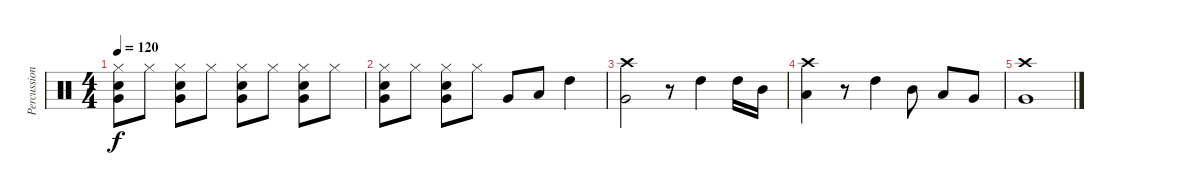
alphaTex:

\track ("Percussion" "Percussion") {instrument percussion}
\staff {score}
\articulation defaults
\ts (4 4)
\tempo 120
\clef neutral
\ks c
("Hi-Hat (closed)" "Snare (hit) 2" "Very Low Tom (hit)").8{dy f} "Hi-Hat (closed)".8 ("Hi-Hat (closed)" "Snare (hit) 2" "Very Low Tom (hit)").8 "Hi-Hat (closed)".8 ("Hi-Hat (closed)" "Snare (hit) 2" "Very Low Tom (hit)").8 "Hi-Hat (closed)".8 ("Hi-Hat (closed)" "Snare (hit) 2" "Very Low Tom (hit)").8 "Hi-Hat (closed)".8 |
("Hi-Hat (closed)" "Snare (hit) 2" "Very Low Tom (hit)").8 "Hi-Hat (closed)".8 ("Hi-Hat (closed)" "Snare (hit) 2" "Very Low Tom (hit)").8 "Hi-Hat (closed)".8 "Very Low Tom (hit)".8 "Low Tom (hit)".8 "High Tom (hit)".4 |
("Crash high (hit)" "Very Low Tom (hit)").2 r.8 "High Tom (hit)".4 "High Tom (hit)".16 "Mid Tom (hit)".16 |
("Crash high (hit)" "Low Tom (hit)").4 r.8 "High Tom (hit)".4 "Mid Tom (hit)".8 "Low Tom (hit)".8 "Very Low Tom (hit)".8 |
("Crash high (hit)" "Very Low Tom (hit)").1
